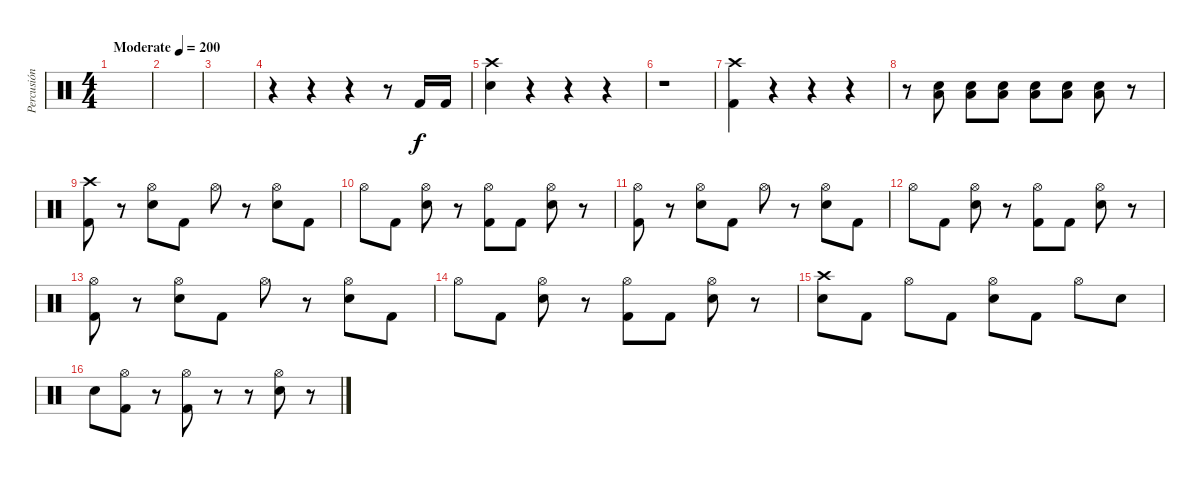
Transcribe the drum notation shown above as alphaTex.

\track ("Percusión" "Percusión") {instrument percussion}
\staff {score}
\articulation defaults
\ts (4 4)
\tempo (200 "Moderate")
\clef neutral
\ks c
|
|
|
r.4 r.4 r.4 r.8 "Kick (hit) 2".16 "Kick (hit) 2".16 |
("Snare (hit) 2" "Crash high (hit)").4 r.4 r.4 r.4 |
r.1 |
("Kick (hit) 2" "Crash high (hit)").4 r.4 r.4 r.4 |
r.8 ("Low Tom (hit)" "Snare (hit) 2").8 ("Low Tom (hit)" "Snare (hit) 2").8 ("Low Tom (hit)" "Snare (hit) 2").8 ("Low Tom (hit)" "Snare (hit) 2").8 ("Low Tom (hit)" "Snare (hit) 2").8 ("Low Tom (hit)" "Snare (hit) 2").8 r.8 |
("Kick (hit) 2" "Crash high (hit)").8 r.8 ("Snare (hit) 2" "Hi-Hat (open)").8 "Kick (hit) 2".8 "Hi-Hat (open)".8 r.8 ("Snare (hit) 2" "Hi-Hat (open)").8 "Kick (hit) 2".8 |
"Hi-Hat (open)".8 "Kick (hit) 2".8 ("Snare (hit) 2" "Hi-Hat (open)").8 r.8 ("Kick (hit) 2" "Hi-Hat (open)").8 "Kick (hit) 2".8 ("Snare (hit) 2" "Hi-Hat (open)").8 r.8 |
("Kick (hit) 2" "Hi-Hat (open)").8 r.8 ("Snare (hit) 2" "Hi-Hat (open)").8 "Kick (hit) 2".8 "Hi-Hat (open)".8 r.8 ("Snare (hit) 2" "Hi-Hat (open)").8 "Kick (hit) 2".8 |
"Hi-Hat (open)".8 "Kick (hit) 2".8 ("Snare (hit) 2" "Hi-Hat (open)").8 r.8 ("Kick (hit) 2" "Hi-Hat (open)").8 "Kick (hit) 2".8 ("Snare (hit) 2" "Hi-Hat (open)").8 r.8 |
("Kick (hit) 2" "Hi-Hat (open)").8 r.8 ("Snare (hit) 2" "Hi-Hat (open)").8 "Kick (hit) 2".8 "Hi-Hat (open)".8 r.8 ("Snare (hit) 2" "Hi-Hat (open)").8 "Kick (hit) 2".8 |
"Hi-Hat (open)".8 "Kick (hit) 2".8 ("Snare (hit) 2" "Hi-Hat (open)").8 r.8 ("Kick (hit) 2" "Hi-Hat (open)").8 "Kick (hit) 2".8 ("Snare (hit) 2" "Hi-Hat (open)").8 r.8 |
("Snare (hit) 2" "Crash high (hit)").8 "Kick (hit) 2".8 "Hi-Hat (open)".8 "Kick (hit) 2".8 ("Snare (hit) 2" "Hi-Hat (open)").8 "Kick (hit) 2".8 "Hi-Hat (open)".8 "Snare (hit) 2".8 |
"Snare (hit) 2".8 ("Kick (hit) 2" "Hi-Hat (open)").8 r.8 ("Kick (hit) 2" "Hi-Hat (open)").8 r.8 r.8 ("Snare (hit) 2" "Hi-Hat (open)").8 r.8
